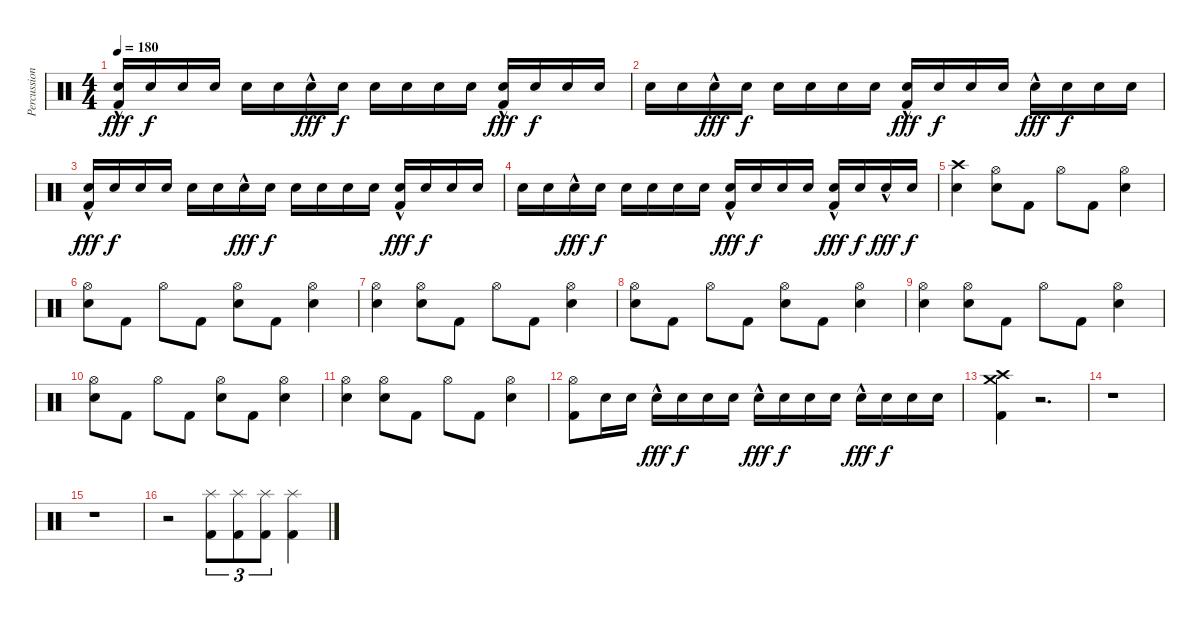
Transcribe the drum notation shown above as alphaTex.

\track ("Percussion" "Percussion") {instrument percussion}
\staff {score}
\articulation defaults
\ts (4 4)
\tempo 180
\clef neutral
\ks c
("Electric Snare (hit)" "Kick (hit) 2"{hac}).16{dy fff} "Electric Snare (hit)".16{dy f} "Electric Snare (hit)".16 "Electric Snare (hit)".16 "Electric Snare (hit)".16 "Electric Snare (hit)".16 "Electric Snare (hit)"{hac}.16{dy fff} "Electric Snare (hit)".16{dy f} "Electric Snare (hit)".16 "Electric Snare (hit)".16 "Electric Snare (hit)".16 "Electric Snare (hit)".16 ("Electric Snare (hit)" "Kick (hit) 2"{hac}).16{dy fff} "Electric Snare (hit)".16{dy f} "Electric Snare (hit)".16 "Electric Snare (hit)".16 |
"Electric Snare (hit)".16 "Electric Snare (hit)".16 "Electric Snare (hit)"{hac}.16{dy fff} "Electric Snare (hit)".16{dy f} "Electric Snare (hit)".16 "Electric Snare (hit)".16 "Electric Snare (hit)".16 "Electric Snare (hit)".16 ("Electric Snare (hit)" "Kick (hit) 2"{hac}).16{dy fff} "Electric Snare (hit)".16{dy f} "Electric Snare (hit)".16 "Electric Snare (hit)".16 "Electric Snare (hit)"{hac}.16{dy fff} "Electric Snare (hit)".16{dy f} "Electric Snare (hit)".16 "Electric Snare (hit)".16 |
("Electric Snare (hit)" "Kick (hit) 2"{hac}).16{dy fff} "Electric Snare (hit)".16{dy f} "Electric Snare (hit)".16 "Electric Snare (hit)".16 "Electric Snare (hit)".16 "Electric Snare (hit)".16 "Electric Snare (hit)"{hac}.16{dy fff} "Electric Snare (hit)".16{dy f} "Electric Snare (hit)".16 "Electric Snare (hit)".16 "Electric Snare (hit)".16 "Electric Snare (hit)".16 ("Electric Snare (hit)" "Kick (hit) 2"{hac}).16{dy fff} "Electric Snare (hit)".16{dy f} "Electric Snare (hit)".16 "Electric Snare (hit)".16 |
"Electric Snare (hit)".16 "Electric Snare (hit)".16 "Electric Snare (hit)"{hac}.16{dy fff} "Electric Snare (hit)".16{dy f} "Electric Snare (hit)".16 "Electric Snare (hit)".16 "Electric Snare (hit)".16 "Electric Snare (hit)".16 ("Electric Snare (hit)" "Kick (hit) 2"{hac}).16{dy fff} "Electric Snare (hit)".16{dy f} "Electric Snare (hit)".16 "Electric Snare (hit)".16 ("Electric Snare (hit)"{hac} "Kick (hit) 2").16{dy fff} "Electric Snare (hit)".16{dy f} "Electric Snare (hit)"{hac}.16{dy fff} "Electric Snare (hit)".16{dy f} |
("Crash high (hit)" "Electric Snare (hit)").4{volume 11} ("Hi-Hat (open)" "Electric Snare (hit)").8 "Kick (hit) 2".8 "Hi-Hat (open)".8 "Kick (hit) 2".8 ("Hi-Hat (open)" "Electric Snare (hit)").4 |
("Hi-Hat (open)" "Electric Snare (hit)").8 "Kick (hit) 2".8 "Hi-Hat (open)".8 "Kick (hit) 2".8 ("Hi-Hat (open)" "Electric Snare (hit)").8 "Kick (hit) 2".8 ("Hi-Hat (open)" "Electric Snare (hit)").4 |
("Hi-Hat (open)" "Electric Snare (hit)").4 ("Hi-Hat (open)" "Electric Snare (hit)").8 "Kick (hit) 2".8 "Hi-Hat (open)".8 "Kick (hit) 2".8 ("Hi-Hat (open)" "Electric Snare (hit)").4 |
("Hi-Hat (open)" "Electric Snare (hit)").8 "Kick (hit) 2".8 "Hi-Hat (open)".8 "Kick (hit) 2".8 ("Hi-Hat (open)" "Electric Snare (hit)").8 "Kick (hit) 2".8 ("Hi-Hat (open)" "Electric Snare (hit)").4 |
("Hi-Hat (open)" "Electric Snare (hit)").4 ("Hi-Hat (open)" "Electric Snare (hit)").8 "Kick (hit) 2".8 "Hi-Hat (open)".8 "Kick (hit) 2".8 ("Hi-Hat (open)" "Electric Snare (hit)").4 |
("Hi-Hat (open)" "Electric Snare (hit)").8 "Kick (hit) 2".8 "Hi-Hat (open)".8 "Kick (hit) 2".8 ("Hi-Hat (open)" "Electric Snare (hit)").8 "Kick (hit) 2".8 ("Hi-Hat (open)" "Electric Snare (hit)").4 |
("Hi-Hat (open)" "Electric Snare (hit)").4 ("Hi-Hat (open)" "Electric Snare (hit)").8 "Kick (hit) 2".8 "Hi-Hat (open)".8 "Kick (hit) 2".8 ("Hi-Hat (open)" "Electric Snare (hit)").4 |
("Hi-Hat (open)" "Kick (hit) 2").8 "Electric Snare (hit)".16 "Electric Snare (hit)".16 "Electric Snare (hit)"{hac}.16{dy fff} "Electric Snare (hit)".16{dy f} "Electric Snare (hit)".16 "Electric Snare (hit)".16 "Electric Snare (hit)"{hac}.16{dy fff} "Electric Snare (hit)".16{dy f} "Electric Snare (hit)".16 "Electric Snare (hit)".16 "Electric Snare (hit)"{hac}.16{dy fff} "Electric Snare (hit)".16{dy f} "Electric Snare (hit)".16 "Electric Snare (hit)".16 |
("Crash medium (hit)" "Crash high (hit)" "Kick (hit) 2").4 r.2{d} |
r.1 |
r.1 |
r.2 ("Splash (hit)" "Kick (hit) 2").8{tu (3 2)} ("Splash (hit)" "Kick (hit) 2").8{tu (3 2)} ("Splash (hit)" "Kick (hit) 2").8{tu (3 2)} ("Splash (hit)" "Kick (hit) 2").4
